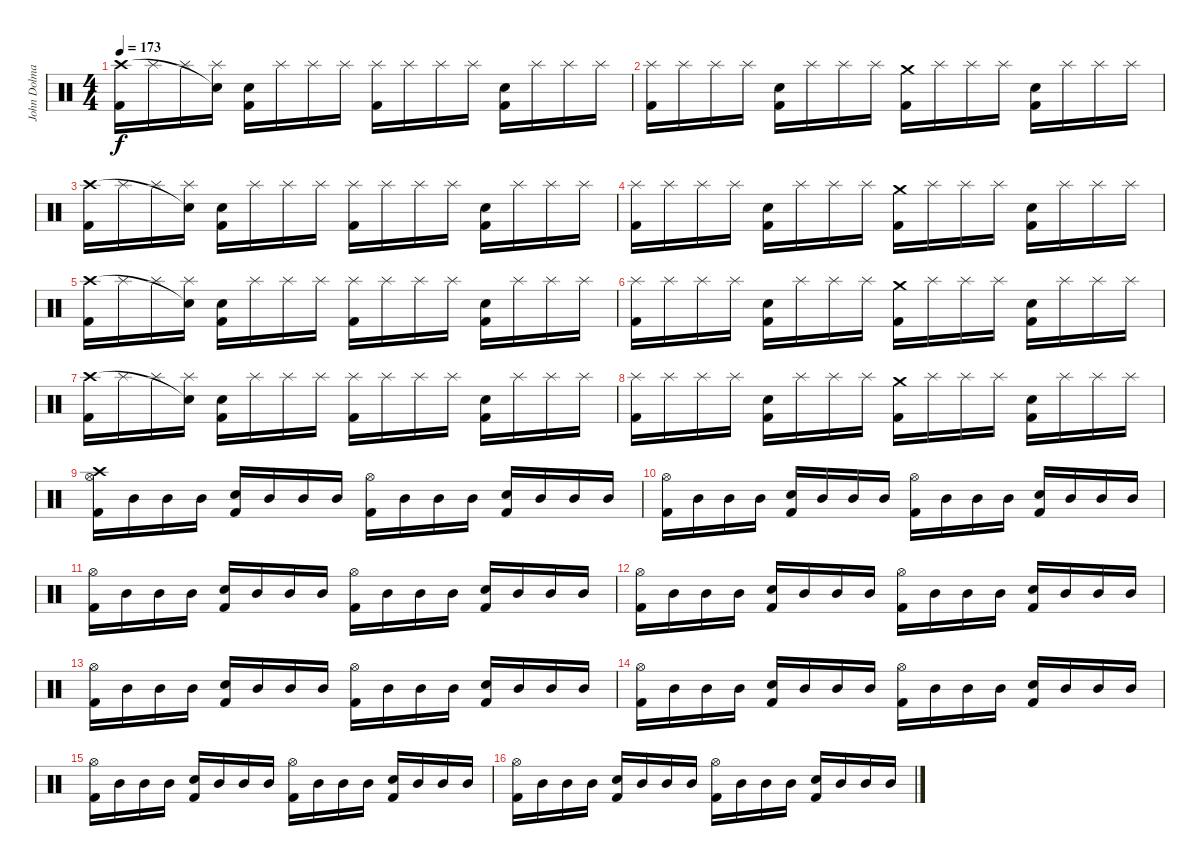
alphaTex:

\track ("John Dolmayan" "John Dolma") {instrument percussion}
\staff {score}
\articulation defaults
\ts (4 4)
\tempo 173
\clef neutral
\ks c
("Kick (hit) 2" "Crash high (hit)").16{dy f} "Splash (hit)".16 "Splash (hit)".16 ("Splash (hit)" "Snare (hit)"{t}).16 ("Electric Snare (hit)" "Kick (hit) 2").16 "Splash (hit)".16 "Splash (hit)".16 "Splash (hit)".16 ("Kick (hit) 2" "Splash (hit)").16 "Splash (hit)".16 "Splash (hit)".16 "Splash (hit)".16 ("Electric Snare (hit)" "Kick (hit) 2").16 "Splash (hit)".16 "Splash (hit)".16 "Splash (hit)".16 |
("Kick (hit) 2" "Splash (hit)").16 "Splash (hit)".16 "Splash (hit)".16 "Splash (hit)".16 ("Electric Snare (hit)" "Kick (hit) 2").16 "Splash (hit)".16 "Splash (hit)".16 "Splash (hit)".16 ("Kick (hit) 2" "Crash medium (hit)").16 "Splash (hit)".16 "Splash (hit)".16 "Splash (hit)".16 ("Electric Snare (hit)" "Kick (hit) 2").16 "Splash (hit)".16 "Splash (hit)".16 "Splash (hit)".16 |
("Kick (hit) 2" "Crash high (hit)").16 "Splash (hit)".16 "Splash (hit)".16 ("Splash (hit)" "Snare (hit)"{t}).16 ("Electric Snare (hit)" "Kick (hit) 2").16 "Splash (hit)".16 "Splash (hit)".16 "Splash (hit)".16 ("Kick (hit) 2" "Splash (hit)").16 "Splash (hit)".16 "Splash (hit)".16 "Splash (hit)".16 ("Electric Snare (hit)" "Kick (hit) 2").16 "Splash (hit)".16 "Splash (hit)".16 "Splash (hit)".16 |
("Kick (hit) 2" "Splash (hit)").16 "Splash (hit)".16 "Splash (hit)".16 "Splash (hit)".16 ("Electric Snare (hit)" "Kick (hit) 2").16 "Splash (hit)".16 "Splash (hit)".16 "Splash (hit)".16 ("Kick (hit) 2" "Crash medium (hit)").16 "Splash (hit)".16 "Splash (hit)".16 "Splash (hit)".16 ("Electric Snare (hit)" "Kick (hit) 2").16 "Splash (hit)".16 "Splash (hit)".16 "Splash (hit)".16 |
("Kick (hit) 2" "Crash high (hit)").16 "Splash (hit)".16 "Splash (hit)".16 ("Splash (hit)" "Snare (hit)"{t}).16 ("Electric Snare (hit)" "Kick (hit) 2").16 "Splash (hit)".16 "Splash (hit)".16 "Splash (hit)".16 ("Kick (hit) 2" "Splash (hit)").16 "Splash (hit)".16 "Splash (hit)".16 "Splash (hit)".16 ("Electric Snare (hit)" "Kick (hit) 2").16 "Splash (hit)".16 "Splash (hit)".16 "Splash (hit)".16 |
("Kick (hit) 2" "Splash (hit)").16 "Splash (hit)".16 "Splash (hit)".16 "Splash (hit)".16 ("Electric Snare (hit)" "Kick (hit) 2").16 "Splash (hit)".16 "Splash (hit)".16 "Splash (hit)".16 ("Kick (hit) 2" "Crash medium (hit)").16 "Splash (hit)".16 "Splash (hit)".16 "Splash (hit)".16 ("Electric Snare (hit)" "Kick (hit) 2").16 "Splash (hit)".16 "Splash (hit)".16 "Splash (hit)".16 |
("Kick (hit) 2" "Crash high (hit)").16 "Splash (hit)".16 "Splash (hit)".16 ("Splash (hit)" "Snare (hit)"{t}).16 ("Electric Snare (hit)" "Kick (hit) 2").16 "Splash (hit)".16 "Splash (hit)".16 "Splash (hit)".16 ("Kick (hit) 2" "Splash (hit)").16 "Splash (hit)".16 "Splash (hit)".16 "Splash (hit)".16 ("Electric Snare (hit)" "Kick (hit) 2").16 "Splash (hit)".16 "Splash (hit)".16 "Splash (hit)".16 |
("Kick (hit) 2" "Splash (hit)").16 "Splash (hit)".16 "Splash (hit)".16 "Splash (hit)".16 ("Electric Snare (hit)" "Kick (hit) 2").16 "Splash (hit)".16 "Splash (hit)".16 "Splash (hit)".16 ("Kick (hit) 2" "Crash medium (hit)").16 "Splash (hit)".16 "Splash (hit)".16 "Splash (hit)".16 ("Electric Snare (hit)" "Kick (hit) 2").16 "Splash (hit)".16 "Splash (hit)".16 "Splash (hit)".16 |
("Hi-Hat (open)" "Kick (hit) 2" "Crash high (hit)").16 "Mid Tom (hit)".16 "Mid Tom (hit)".16 "Mid Tom (hit)".16 ("Electric Snare (hit)" "Kick (hit) 2").16 "Mid Tom (hit)".16 "Mid Tom (hit)".16 "Mid Tom (hit)".16 ("Hi-Hat (open)" "Kick (hit) 2").16 "Mid Tom (hit)".16 "Mid Tom (hit)".16 "Mid Tom (hit)".16 ("Electric Snare (hit)" "Kick (hit) 2").16 "Mid Tom (hit)".16 "Mid Tom (hit)".16 "Mid Tom (hit)".16 |
("Hi-Hat (open)" "Kick (hit) 2").16 "Mid Tom (hit)".16 "Mid Tom (hit)".16 "Mid Tom (hit)".16 ("Electric Snare (hit)" "Kick (hit) 2").16 "Mid Tom (hit)".16 "Mid Tom (hit)".16 "Mid Tom (hit)".16 ("Hi-Hat (open)" "Kick (hit) 2").16 "Mid Tom (hit)".16 "Mid Tom (hit)".16 "Mid Tom (hit)".16 ("Electric Snare (hit)" "Kick (hit) 2").16 "Mid Tom (hit)".16 "Mid Tom (hit)".16 "Mid Tom (hit)".16 |
("Hi-Hat (open)" "Kick (hit) 2").16 "Mid Tom (hit)".16 "Mid Tom (hit)".16 "Mid Tom (hit)".16 ("Electric Snare (hit)" "Kick (hit) 2").16 "Mid Tom (hit)".16 "Mid Tom (hit)".16 "Mid Tom (hit)".16 ("Hi-Hat (open)" "Kick (hit) 2").16 "Mid Tom (hit)".16 "Mid Tom (hit)".16 "Mid Tom (hit)".16 ("Electric Snare (hit)" "Kick (hit) 2").16 "Mid Tom (hit)".16 "Mid Tom (hit)".16 "Mid Tom (hit)".16 |
("Hi-Hat (open)" "Kick (hit) 2").16 "Mid Tom (hit)".16 "Mid Tom (hit)".16 "Mid Tom (hit)".16 ("Electric Snare (hit)" "Kick (hit) 2").16 "Mid Tom (hit)".16 "Mid Tom (hit)".16 "Mid Tom (hit)".16 ("Hi-Hat (open)" "Kick (hit) 2").16 "Mid Tom (hit)".16 "Mid Tom (hit)".16 "Mid Tom (hit)".16 ("Electric Snare (hit)" "Kick (hit) 2").16 "Mid Tom (hit)".16 "Mid Tom (hit)".16 "Mid Tom (hit)".16 |
("Hi-Hat (open)" "Kick (hit) 2").16 "Mid Tom (hit)".16 "Mid Tom (hit)".16 "Mid Tom (hit)".16 ("Electric Snare (hit)" "Kick (hit) 2").16 "Mid Tom (hit)".16 "Mid Tom (hit)".16 "Mid Tom (hit)".16 ("Hi-Hat (open)" "Kick (hit) 2").16 "Mid Tom (hit)".16 "Mid Tom (hit)".16 "Mid Tom (hit)".16 ("Electric Snare (hit)" "Kick (hit) 2").16 "Mid Tom (hit)".16 "Mid Tom (hit)".16 "Mid Tom (hit)".16 |
("Hi-Hat (open)" "Kick (hit) 2").16 "Mid Tom (hit)".16 "Mid Tom (hit)".16 "Mid Tom (hit)".16 ("Electric Snare (hit)" "Kick (hit) 2").16 "Mid Tom (hit)".16 "Mid Tom (hit)".16 "Mid Tom (hit)".16 ("Hi-Hat (open)" "Kick (hit) 2").16 "Mid Tom (hit)".16 "Mid Tom (hit)".16 "Mid Tom (hit)".16 ("Electric Snare (hit)" "Kick (hit) 2").16 "Mid Tom (hit)".16 "Mid Tom (hit)".16 "Mid Tom (hit)".16 |
("Hi-Hat (open)" "Kick (hit) 2").16 "Mid Tom (hit)".16 "Mid Tom (hit)".16 "Mid Tom (hit)".16 ("Electric Snare (hit)" "Kick (hit) 2").16 "Mid Tom (hit)".16 "Mid Tom (hit)".16 "Mid Tom (hit)".16 ("Hi-Hat (open)" "Kick (hit) 2").16 "Mid Tom (hit)".16 "Mid Tom (hit)".16 "Mid Tom (hit)".16 ("Electric Snare (hit)" "Kick (hit) 2").16 "Mid Tom (hit)".16 "Mid Tom (hit)".16 "Mid Tom (hit)".16 |
("Hi-Hat (open)" "Kick (hit) 2").16 "Mid Tom (hit)".16 "Mid Tom (hit)".16 "Mid Tom (hit)".16 ("Electric Snare (hit)" "Kick (hit) 2").16 "Mid Tom (hit)".16 "Mid Tom (hit)".16 "Mid Tom (hit)".16 ("Hi-Hat (open)" "Kick (hit) 2").16 "Mid Tom (hit)".16 "Mid Tom (hit)".16 "Mid Tom (hit)".16 ("Electric Snare (hit)" "Kick (hit) 2").16 "Mid Tom (hit)".16 "Mid Tom (hit)".16 "Mid Tom (hit)".16
